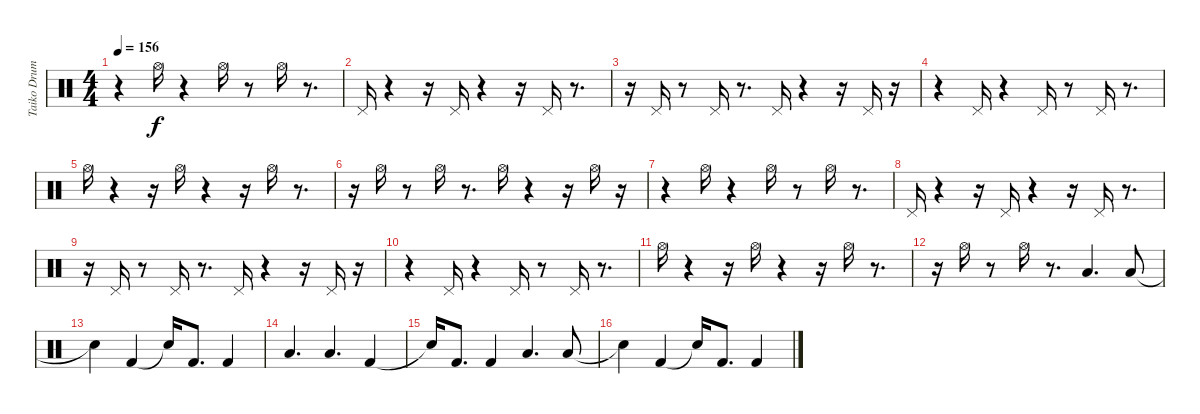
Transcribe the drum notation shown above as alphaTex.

\track ("Taiko Drum" "Taiko Drum") {instrument percussion}
\staff {score}
\articulation defaults
\ts (4 4)
\tempo 156
\clef neutral
\ks c
r.4{dy f} "Hi-Hat (open)".16 r.4 "Hi-Hat (open)".16 r.8 "Hi-Hat (open)".16 r.8{d} |
"Pedal Hi-Hat (hit)".16 r.4 r.16 "Pedal Hi-Hat (hit)".16 r.4 r.16 "Pedal Hi-Hat (hit)".16 r.8{d} |
r.16 "Pedal Hi-Hat (hit)".16 r.8 "Pedal Hi-Hat (hit)".16 r.8{d} "Pedal Hi-Hat (hit)".16 r.4 r.16 "Pedal Hi-Hat (hit)".16 r.16 |
r.4 "Pedal Hi-Hat (hit)".16 r.4 "Pedal Hi-Hat (hit)".16 r.8 "Pedal Hi-Hat (hit)".16 r.8{d} |
"Hi-Hat (open)".16 r.4 r.16 "Hi-Hat (open)".16 r.4 r.16 "Hi-Hat (open)".16 r.8{d} |
r.16 "Hi-Hat (open)".16 r.8 "Hi-Hat (open)".16 r.8{d} "Hi-Hat (open)".16 r.4 r.16 "Hi-Hat (open)".16 r.16 |
r.4 "Hi-Hat (open)".16 r.4 "Hi-Hat (open)".16 r.8 "Hi-Hat (open)".16 r.8{d} |
"Pedal Hi-Hat (hit)".16 r.4 r.16 "Pedal Hi-Hat (hit)".16 r.4 r.16 "Pedal Hi-Hat (hit)".16 r.8{d} |
r.16 "Pedal Hi-Hat (hit)".16 r.8 "Pedal Hi-Hat (hit)".16 r.8{d} "Pedal Hi-Hat (hit)".16 r.4 r.16 "Pedal Hi-Hat (hit)".16 r.16 |
r.4 "Pedal Hi-Hat (hit)".16 r.4 "Pedal Hi-Hat (hit)".16 r.8 "Pedal Hi-Hat (hit)".16 r.8{d} |
"Hi-Hat (open)".16 r.4 r.16 "Hi-Hat (open)".16 r.4 r.16 "Hi-Hat (open)".16 r.8{d} |
r.16 "Hi-Hat (open)".16 r.8 "Hi-Hat (open)".16 r.8{d} "Low Floor Tom (hit)".4{d} "Low Floor Tom (hit)".8 |
"Snare (hit)"{t}.4 "Kick (hit) 2".4 "Snare (hit)"{t}.16 "Kick (hit) 2".8{d} "Kick (hit) 2".4 |
"Low Floor Tom (hit)".4{d} "Low Floor Tom (hit)".4{d} "Kick (hit) 2".4 |
"Snare (hit)"{t}.16 "Kick (hit) 2".8{d} "Kick (hit) 2".4 "Low Floor Tom (hit)".4{d} "Low Floor Tom (hit)".8 |
"Snare (hit)"{t}.4 "Kick (hit) 2".4 "Snare (hit)"{t}.16 "Kick (hit) 2".8{d} "Kick (hit) 2".4
